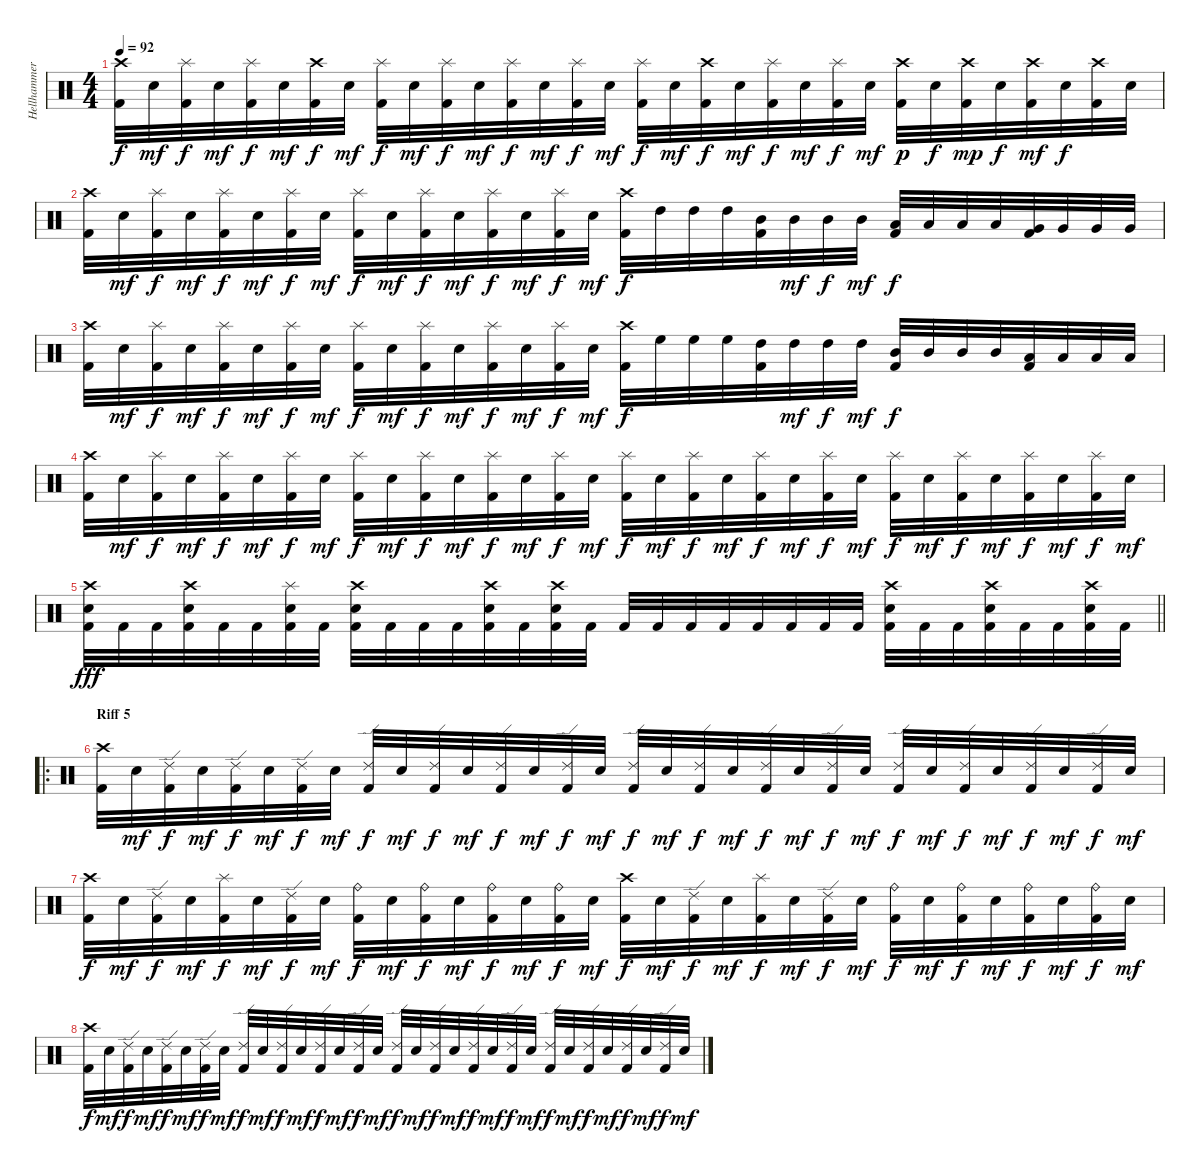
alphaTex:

\track ("Hellhammer" "Hellhammer") {instrument percussion}
\staff {score}
\articulation defaults
\ts (4 4)
\tempo 92
\clef neutral
\ks c
("Crash high (hit)" "Kick (hit) 2").32{dy f} "Electric Snare (hit)".32{dy mf} ("Splash (hit)" "Kick (hit) 2").32{dy f} "Electric Snare (hit)".32{dy mf} ("Splash (hit)" "Kick (hit) 2").32{dy f} "Electric Snare (hit)".32{dy mf} ("Crash high (hit)" "Kick (hit) 2").32{dy f} "Electric Snare (hit)".32{dy mf} ("Splash (hit)" "Kick (hit) 2").32{dy f} "Electric Snare (hit)".32{dy mf} ("Splash (hit)" "Kick (hit) 2").32{dy f} "Electric Snare (hit)".32{dy mf} ("Splash (hit)" "Kick (hit) 2").32{dy f} "Electric Snare (hit)".32{dy mf} ("Splash (hit)" "Kick (hit) 2").32{dy f} "Electric Snare (hit)".32{dy mf} ("Splash (hit)" "Kick (hit) 2").32{dy f} "Electric Snare (hit)".32{dy mf} ("Crash high (hit)" "Kick (hit) 2").32{dy f} "Electric Snare (hit)".32{dy mf} ("Splash (hit)" "Kick (hit) 2").32{dy f} "Electric Snare (hit)".32{dy mf} ("Splash (hit)" "Kick (hit) 2").32{dy f} "Electric Snare (hit)".32{dy mf} ("Crash high (hit)" "Kick (hit) 2").32{dy p} "Electric Snare (hit)".32{dy f} ("Crash high (hit)" "Kick (hit) 2").32{dy mp} "Electric Snare (hit)".32{dy f} ("Crash high (hit)" "Kick (hit) 2").32{dy mf} "Electric Snare (hit)".32{dy f} ("Crash high (hit)" "Kick (hit) 2").32 "Electric Snare (hit)".32 |
("Crash high (hit)" "Kick (hit) 2").32 "Electric Snare (hit)".32{dy mf} ("Splash (hit)" "Kick (hit) 2").32{dy f} "Electric Snare (hit)".32{dy mf} ("Splash (hit)" "Kick (hit) 2").32{dy f} "Electric Snare (hit)".32{dy mf} ("Splash (hit)" "Kick (hit) 2").32{dy f} "Electric Snare (hit)".32{dy mf} ("Splash (hit)" "Kick (hit) 2").32{dy f} "Electric Snare (hit)".32{dy mf} ("Splash (hit)" "Kick (hit) 2").32{dy f} "Electric Snare (hit)".32{dy mf} ("Splash (hit)" "Kick (hit) 2").32{dy f} "Electric Snare (hit)".32{dy mf} ("Splash (hit)" "Kick (hit) 2").32{dy f} "Electric Snare (hit)".32{dy mf} ("Crash high (hit)" "Kick (hit) 2").32{dy f} "High Tom (hit)".32 "High Tom (hit)".32 "High Tom (hit)".32 ("Mid Tom (hit)" "Kick (hit) 2").32 "Mid Tom (hit)".32{dy mf} "Mid Tom (hit)".32{dy f} "Mid Tom (hit)".32{dy mf} ("Kick (hit) 2" "Low Tom (hit)").32{dy f} "Low Tom (hit)".32 "Low Tom (hit)".32 "Low Tom (hit)".32 ("Kick (hit) 2" "Very Low Tom (hit)").32 "Very Low Tom (hit)".32 "Very Low Tom (hit)".32 "Very Low Tom (hit)".32 |
("Crash high (hit)" "Kick (hit) 2").32 "Electric Snare (hit)".32{dy mf} ("Splash (hit)" "Kick (hit) 2").32{dy f} "Electric Snare (hit)".32{dy mf} ("Splash (hit)" "Kick (hit) 2").32{dy f} "Electric Snare (hit)".32{dy mf} ("Splash (hit)" "Kick (hit) 2").32{dy f} "Electric Snare (hit)".32{dy mf} ("Splash (hit)" "Kick (hit) 2").32{dy f} "Electric Snare (hit)".32{dy mf} ("Splash (hit)" "Kick (hit) 2").32{dy f} "Electric Snare (hit)".32{dy mf} ("Splash (hit)" "Kick (hit) 2").32{dy f} "Electric Snare (hit)".32{dy mf} ("Splash (hit)" "Kick (hit) 2").32{dy f} "Electric Snare (hit)".32{dy mf} ("Crash high (hit)" "Kick (hit) 2").32{dy f} "High Floor Tom (hit)".32 "High Floor Tom (hit)".32 "High Floor Tom (hit)".32 ("High Tom (hit)" "Kick (hit) 2").32 "High Tom (hit)".32{dy mf} "High Tom (hit)".32{dy f} "High Tom (hit)".32{dy mf} ("Kick (hit) 2" "Mid Tom (hit)").32{dy f} "Mid Tom (hit)".32 "Mid Tom (hit)".32 "Mid Tom (hit)".32 ("Kick (hit) 2" "Low Tom (hit)").32 "Low Tom (hit)".32 "Low Tom (hit)".32 "Low Tom (hit)".32 |
("Crash high (hit)" "Kick (hit) 2").32 "Electric Snare (hit)".32{dy mf} ("Splash (hit)" "Kick (hit) 2").32{dy f} "Electric Snare (hit)".32{dy mf} ("Splash (hit)" "Kick (hit) 2").32{dy f} "Electric Snare (hit)".32{dy mf} ("Splash (hit)" "Kick (hit) 2").32{dy f} "Electric Snare (hit)".32{dy mf} ("Splash (hit)" "Kick (hit) 2").32{dy f} "Electric Snare (hit)".32{dy mf} ("Splash (hit)" "Kick (hit) 2").32{dy f} "Electric Snare (hit)".32{dy mf} ("Splash (hit)" "Kick (hit) 2").32{dy f} "Electric Snare (hit)".32{dy mf} ("Splash (hit)" "Kick (hit) 2").32{dy f} "Electric Snare (hit)".32{dy mf} ("Splash (hit)" "Kick (hit) 2").32{dy f} "Electric Snare (hit)".32{dy mf} ("Splash (hit)" "Kick (hit) 2").32{dy f} "Electric Snare (hit)".32{dy mf} ("Splash (hit)" "Kick (hit) 2").32{dy f} "Electric Snare (hit)".32{dy mf} ("Splash (hit)" "Kick (hit) 2").32{dy f} "Electric Snare (hit)".32{dy mf} ("Splash (hit)" "Kick (hit) 2").32{dy f} "Electric Snare (hit)".32{dy mf} ("Splash (hit)" "Kick (hit) 2").32{dy f} "Electric Snare (hit)".32{dy mf} ("Splash (hit)" "Kick (hit) 2").32{dy f} "Electric Snare (hit)".32{dy mf} ("Splash (hit)" "Kick (hit) 2").32{dy f} "Electric Snare (hit)".32{dy mf} |
\barLineRight lightlight
("Crash high (hit)" "Electric Snare (hit)" "Kick (hit) 2").32{dy fff} "Kick (hit) 2".32 "Kick (hit) 2".32 ("Crash high (hit)" "Electric Snare (hit)" "Kick (hit) 2").32 "Kick (hit) 2".32 "Kick (hit) 2".32 ("Splash (hit)" "Electric Snare (hit)" "Kick (hit) 2").32 "Kick (hit) 2".32 ("Crash high (hit)" "Electric Snare (hit)" "Kick (hit) 2").32 "Kick (hit) 2".32 "Kick (hit) 2".32 "Kick (hit) 2".32 ("Crash high (hit)" "Electric Snare (hit)" "Kick (hit) 2").32 "Kick (hit) 2".32 ("Crash high (hit)" "Electric Snare (hit)" "Kick (hit) 2").32 "Kick (hit) 2".32 "Kick (hit) 2".32 "Kick (hit) 2".32 "Kick (hit) 2".32 "Kick (hit) 2".32 "Kick (hit) 2".32 "Kick (hit) 2".32 "Kick (hit) 2".32 "Kick (hit) 2".32 ("Crash high (hit)" "Electric Snare (hit)" "Kick (hit) 2").32 "Kick (hit) 2".32 "Kick (hit) 2".32 ("Crash high (hit)" "Electric Snare (hit)" "Kick (hit) 2").32 "Kick (hit) 2".32 "Kick (hit) 2".32 ("Crash high (hit)" "Electric Snare (hit)" "Kick (hit) 2").32 "Kick (hit) 2".32 |
\ro
\section ("" "Riff 5")
("Crash high (hit)" "Kick (hit) 2").32 "Electric Snare (hit)".32{dy mf} ("Ride (edge) 2" "Kick (hit) 2").32{dy f} "Electric Snare (hit)".32{dy mf} ("Ride (edge) 2" "Kick (hit) 2").32{dy f} "Electric Snare (hit)".32{dy mf} ("Ride (edge) 2" "Kick (hit) 2").32{dy f} "Electric Snare (hit)".32{dy mf} ("Ride (edge) 2" "Kick (hit) 2").32{dy f} "Electric Snare (hit)".32{dy mf} ("Ride (edge) 2" "Kick (hit) 2").32{dy f} "Electric Snare (hit)".32{dy mf} ("Ride (edge) 2" "Kick (hit) 2").32{dy f} "Electric Snare (hit)".32{dy mf} ("Ride (edge) 2" "Kick (hit) 2").32{dy f} "Electric Snare (hit)".32{dy mf} ("Ride (edge) 2" "Kick (hit) 2").32{dy f} "Electric Snare (hit)".32{dy mf} ("Ride (edge) 2" "Kick (hit) 2").32{dy f} "Electric Snare (hit)".32{dy mf} ("Ride (edge) 2" "Kick (hit) 2").32{dy f} "Electric Snare (hit)".32{dy mf} ("Ride (edge) 2" "Kick (hit) 2").32{dy f} "Electric Snare (hit)".32{dy mf} ("Ride (edge) 2" "Kick (hit) 2").32{dy f} "Electric Snare (hit)".32{dy mf} ("Ride (edge) 2" "Kick (hit) 2").32{dy f} "Electric Snare (hit)".32{dy mf} ("Ride (edge) 2" "Kick (hit) 2").32{dy f} "Electric Snare (hit)".32{dy mf} ("Ride (edge) 2" "Kick (hit) 2").32{dy f} "Electric Snare (hit)".32{dy mf} |
("Crash high (hit)" "Kick (hit) 2").32{dy f} "Electric Snare (hit)".32{dy mf} ("Ride (edge) 2" "Kick (hit) 2").32{dy f} "Electric Snare (hit)".32{dy mf} ("Splash (hit)" "Kick (hit) 2").32{dy f} "Electric Snare (hit)".32{dy mf} ("Ride (edge) 2" "Kick (hit) 2").32{dy f} "Electric Snare (hit)".32{dy mf} ("Ride (bell)" "Kick (hit) 2").32{dy f} "Electric Snare (hit)".32{dy mf} ("Ride (bell)" "Kick (hit) 2").32{dy f} "Electric Snare (hit)".32{dy mf} ("Ride (bell)" "Kick (hit) 2").32{dy f} "Electric Snare (hit)".32{dy mf} ("Ride (bell)" "Kick (hit) 2").32{dy f} "Electric Snare (hit)".32{dy mf} ("Crash high (hit)" "Kick (hit) 2").32{dy f} "Electric Snare (hit)".32{dy mf} ("Ride (edge) 2" "Kick (hit) 2").32{dy f} "Electric Snare (hit)".32{dy mf} ("Splash (hit)" "Kick (hit) 2").32{dy f} "Electric Snare (hit)".32{dy mf} ("Ride (edge) 2" "Kick (hit) 2").32{dy f} "Electric Snare (hit)".32{dy mf} ("Ride (bell)" "Kick (hit) 2").32{dy f} "Electric Snare (hit)".32{dy mf} ("Ride (bell)" "Kick (hit) 2").32{dy f} "Electric Snare (hit)".32{dy mf} ("Ride (bell)" "Kick (hit) 2").32{dy f} "Electric Snare (hit)".32{dy mf} ("Ride (bell)" "Kick (hit) 2").32{dy f} "Electric Snare (hit)".32{dy mf} |
("Crash high (hit)" "Kick (hit) 2").32{dy f} "Electric Snare (hit)".32{dy mf} ("Ride (edge) 2" "Kick (hit) 2").32{dy f} "Electric Snare (hit)".32{dy mf} ("Ride (edge) 2" "Kick (hit) 2").32{dy f} "Electric Snare (hit)".32{dy mf} ("Ride (edge) 2" "Kick (hit) 2").32{dy f} "Electric Snare (hit)".32{dy mf} ("Ride (edge) 2" "Kick (hit) 2").32{dy f} "Electric Snare (hit)".32{dy mf} ("Ride (edge) 2" "Kick (hit) 2").32{dy f} "Electric Snare (hit)".32{dy mf} ("Ride (edge) 2" "Kick (hit) 2").32{dy f} "Electric Snare (hit)".32{dy mf} ("Ride (edge) 2" "Kick (hit) 2").32{dy f} "Electric Snare (hit)".32{dy mf} ("Ride (edge) 2" "Kick (hit) 2").32{dy f} "Electric Snare (hit)".32{dy mf} ("Ride (edge) 2" "Kick (hit) 2").32{dy f} "Electric Snare (hit)".32{dy mf} ("Ride (edge) 2" "Kick (hit) 2").32{dy f} "Electric Snare (hit)".32{dy mf} ("Ride (edge) 2" "Kick (hit) 2").32{dy f} "Electric Snare (hit)".32{dy mf} ("Ride (edge) 2" "Kick (hit) 2").32{dy f} "Electric Snare (hit)".32{dy mf} ("Ride (edge) 2" "Kick (hit) 2").32{dy f} "Electric Snare (hit)".32{dy mf} ("Ride (edge) 2" "Kick (hit) 2").32{dy f} "Electric Snare (hit)".32{dy mf} ("Ride (edge) 2" "Kick (hit) 2").32{dy f} "Electric Snare (hit)".32{dy mf}
